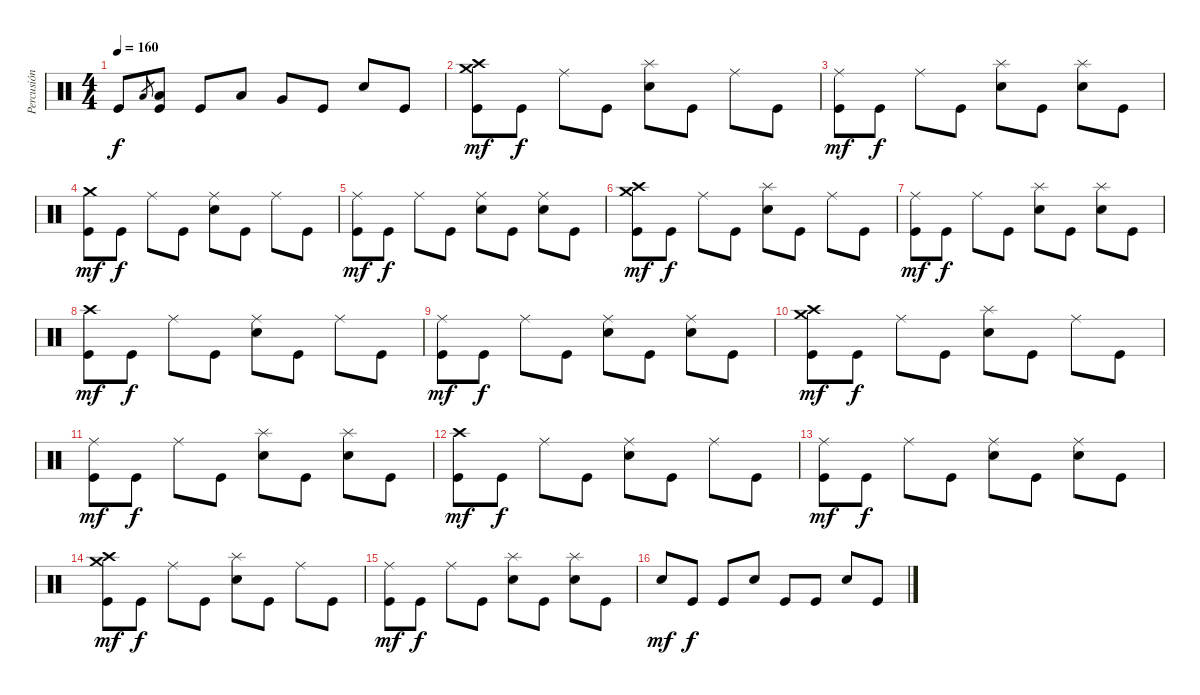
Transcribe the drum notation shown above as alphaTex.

\track ("Percusión" "Percusión") {instrument percussion}
\staff {score}
\articulation defaults
\ts (4 4)
\tempo 160
\clef neutral
\ks c "Kick (hit)".8{dy f} "Low Tom (hit)".8{gr}
("Low Tom (hit)" "Kick (hit)").8 "Kick (hit)".8 "Low Tom (hit)".8 "Very Low Tom (hit)".8 "Kick (hit)".8 "Electric Snare (hit)".8 "Kick (hit)".8 |
("Crash medium (hit)" "Crash high (hit)" "Kick (hit)").8{dy mf} "Kick (hit)".8{dy f} "Ride (middle)".8 "Kick (hit)".8 ("Splash (hit)" "Electric Snare (hit)").8 "Kick (hit)".8 "Ride (middle)".8 "Kick (hit)".8 |
("Ride (middle)" "Kick (hit)").8{dy mf} "Kick (hit)".8{dy f} "Ride (middle)".8 "Kick (hit)".8 ("Splash (hit)" "Electric Snare (hit)").8 "Kick (hit)".8 ("Splash (hit)" "Electric Snare (hit)").8 "Kick (hit)".8 |
("Crash medium (hit)" "Kick (hit)").8{dy mf} "Kick (hit)".8{dy f} "Ride (middle)".8 "Kick (hit)".8 ("Ride (middle)" "Electric Snare (hit)").8 "Kick (hit)".8 "Ride (middle)".8 "Kick (hit)".8 |
("Ride (middle)" "Kick (hit)").8{dy mf} "Kick (hit)".8{dy f} "Ride (middle)".8 "Kick (hit)".8 ("Ride (middle)" "Electric Snare (hit)").8 "Kick (hit)".8 ("Ride (middle)" "Electric Snare (hit)").8 "Kick (hit)".8 |
("Crash medium (hit)" "Crash high (hit)" "Kick (hit)").8{dy mf} "Kick (hit)".8{dy f} "Ride (middle)".8 "Kick (hit)".8 ("Splash (hit)" "Electric Snare (hit)").8 "Kick (hit)".8 "Ride (middle)".8 "Kick (hit)".8 |
("Ride (middle)" "Kick (hit)").8{dy mf} "Kick (hit)".8{dy f} "Ride (middle)".8 "Kick (hit)".8 ("Splash (hit)" "Electric Snare (hit)").8 "Kick (hit)".8 ("Splash (hit)" "Electric Snare (hit)").8 "Kick (hit)".8 |
("Crash high (hit)" "Kick (hit)").8{dy mf} "Kick (hit)".8{dy f} "Ride (middle)".8 "Kick (hit)".8 ("Ride (middle)" "Electric Snare (hit)").8 "Kick (hit)".8 "Ride (middle)".8 "Kick (hit)".8 |
("Ride (middle)" "Kick (hit)").8{dy mf} "Kick (hit)".8{dy f} "Ride (middle)".8 "Kick (hit)".8 ("Ride (middle)" "Electric Snare (hit)").8 "Kick (hit)".8 ("Ride (middle)" "Electric Snare (hit)").8 "Kick (hit)".8 |
("Crash medium (hit)" "Crash high (hit)" "Kick (hit)").8{dy mf} "Kick (hit)".8{dy f} "Ride (middle)".8 "Kick (hit)".8 ("Splash (hit)" "Electric Snare (hit)").8 "Kick (hit)".8 "Ride (middle)".8 "Kick (hit)".8 |
("Ride (middle)" "Kick (hit)").8{dy mf} "Kick (hit)".8{dy f} "Ride (middle)".8 "Kick (hit)".8 ("Splash (hit)" "Electric Snare (hit)").8 "Kick (hit)".8 ("Splash (hit)" "Electric Snare (hit)").8 "Kick (hit)".8 |
("Crash high (hit)" "Kick (hit)").8{dy mf} "Kick (hit)".8{dy f} "Ride (middle)".8 "Kick (hit)".8 ("Ride (middle)" "Electric Snare (hit)").8 "Kick (hit)".8 "Ride (middle)".8 "Kick (hit)".8 |
("Ride (middle)" "Kick (hit)").8{dy mf} "Kick (hit)".8{dy f} "Ride (middle)".8 "Kick (hit)".8 ("Ride (middle)" "Electric Snare (hit)").8 "Kick (hit)".8 ("Ride (middle)" "Electric Snare (hit)").8 "Kick (hit)".8 |
("Crash medium (hit)" "Crash high (hit)" "Kick (hit)").8{dy mf} "Kick (hit)".8{dy f} "Ride (middle)".8 "Kick (hit)".8 ("Splash (hit)" "Electric Snare (hit)").8 "Kick (hit)".8 "Ride (middle)".8 "Kick (hit)".8 |
("Ride (middle)" "Kick (hit)").8{dy mf} "Kick (hit)".8{dy f} "Ride (middle)".8 "Kick (hit)".8 ("Splash (hit)" "Electric Snare (hit)").8 "Kick (hit)".8 ("Splash (hit)" "Electric Snare (hit)").8 "Kick (hit)".8 |
"Electric Snare (hit)".8{dy mf} "Kick (hit)".8{dy f} "Kick (hit)".8 "Electric Snare (hit)".8 "Kick (hit)".8 "Kick (hit)".8 "Electric Snare (hit)".8 "Kick (hit)".8
